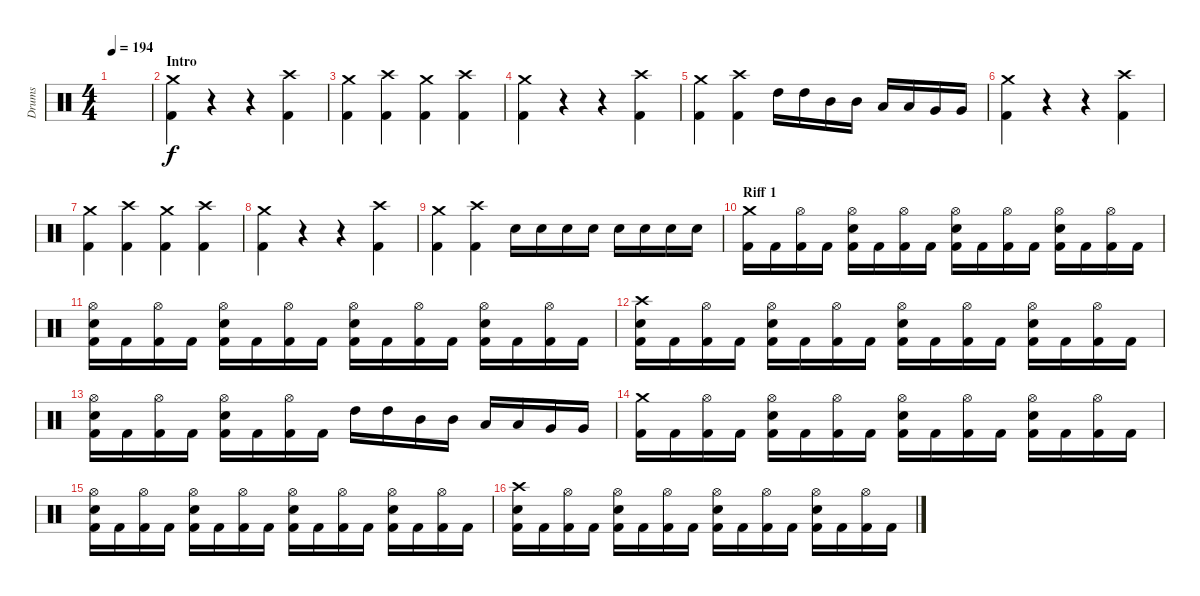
\track ("Drums" "Drums") {instrument percussion}
\staff {score}
\articulation defaults
\ts (4 4)
\tempo 194
\clef neutral
\ks c
|
\section ("" "Intro")
("Crash medium (hit)" "Kick (hit) 2").4 r.4 r.4 ("Crash high (hit)" "Kick (hit) 2").4 |
("Crash medium (hit)" "Kick (hit) 2").4 ("Crash high (hit)" "Kick (hit) 2").4 ("Crash medium (hit)" "Kick (hit) 2").4 ("Crash high (hit)" "Kick (hit) 2").4 |
("Crash medium (hit)" "Kick (hit) 2").4 r.4 r.4 ("Crash high (hit)" "Kick (hit) 2").4 |
("Crash medium (hit)" "Kick (hit) 2").4 ("Crash high (hit)" "Kick (hit) 2").4 "High Tom (hit)".16 "High Tom (hit)".16 "Mid Tom (hit)".16 "Mid Tom (hit)".16 "Low Tom (hit)".16 "Low Tom (hit)".16 "Very Low Tom (hit)".16 "Very Low Tom (hit)".16 |
("Crash medium (hit)" "Kick (hit) 2").4 r.4 r.4 ("Crash high (hit)" "Kick (hit) 2").4 |
("Crash medium (hit)" "Kick (hit) 2").4 ("Crash high (hit)" "Kick (hit) 2").4 ("Crash medium (hit)" "Kick (hit) 2").4 ("Crash high (hit)" "Kick (hit) 2").4 |
("Crash medium (hit)" "Kick (hit) 2").4 r.4 r.4 ("Crash high (hit)" "Kick (hit) 2").4 |
("Crash medium (hit)" "Kick (hit) 2").4 ("Crash high (hit)" "Kick (hit) 2").4 "Electric Snare (hit)".16 "Electric Snare (hit)".16 "Electric Snare (hit)".16 "Electric Snare (hit)".16 "Electric Snare (hit)".16 "Electric Snare (hit)".16 "Electric Snare (hit)".16 "Electric Snare (hit)".16 |
\section ("" "Riff 1")
("Crash medium (hit)" "Kick (hit) 2").16 "Kick (hit) 2".16 ("Hi-Hat (open)" "Kick (hit) 2").16 "Kick (hit) 2".16 ("Hi-Hat (open)" "Electric Snare (hit)" "Kick (hit) 2").16 "Kick (hit) 2".16 ("Hi-Hat (open)" "Kick (hit) 2").16 "Kick (hit) 2".16 ("Hi-Hat (open)" "Electric Snare (hit)" "Kick (hit) 2").16 "Kick (hit) 2".16 ("Hi-Hat (open)" "Kick (hit) 2").16 "Kick (hit) 2".16 ("Hi-Hat (open)" "Electric Snare (hit)" "Kick (hit) 2").16 "Kick (hit) 2".16 ("Hi-Hat (open)" "Kick (hit) 2").16 "Kick (hit) 2".16 |
("Hi-Hat (open)" "Electric Snare (hit)" "Kick (hit) 2").16 "Kick (hit) 2".16 ("Hi-Hat (open)" "Kick (hit) 2").16 "Kick (hit) 2".16 ("Hi-Hat (open)" "Electric Snare (hit)" "Kick (hit) 2").16 "Kick (hit) 2".16 ("Hi-Hat (open)" "Kick (hit) 2").16 "Kick (hit) 2".16 ("Hi-Hat (open)" "Electric Snare (hit)" "Kick (hit) 2").16 "Kick (hit) 2".16 ("Hi-Hat (open)" "Kick (hit) 2").16 "Kick (hit) 2".16 ("Hi-Hat (open)" "Electric Snare (hit)" "Kick (hit) 2").16 "Kick (hit) 2".16 ("Hi-Hat (open)" "Kick (hit) 2").16 "Kick (hit) 2".16 |
("Crash high (hit)" "Electric Snare (hit)" "Kick (hit) 2").16 "Kick (hit) 2".16 ("Hi-Hat (open)" "Kick (hit) 2").16 "Kick (hit) 2".16 ("Hi-Hat (open)" "Electric Snare (hit)" "Kick (hit) 2").16 "Kick (hit) 2".16 ("Hi-Hat (open)" "Kick (hit) 2").16 "Kick (hit) 2".16 ("Hi-Hat (open)" "Electric Snare (hit)" "Kick (hit) 2").16 "Kick (hit) 2".16 ("Hi-Hat (open)" "Kick (hit) 2").16 "Kick (hit) 2".16 ("Hi-Hat (open)" "Electric Snare (hit)" "Kick (hit) 2").16 "Kick (hit) 2".16 ("Hi-Hat (open)" "Kick (hit) 2").16 "Kick (hit) 2".16 |
("Hi-Hat (open)" "Electric Snare (hit)" "Kick (hit) 2").16 "Kick (hit) 2".16 ("Hi-Hat (open)" "Kick (hit) 2").16 "Kick (hit) 2".16 ("Hi-Hat (open)" "Electric Snare (hit)" "Kick (hit) 2").16 "Kick (hit) 2".16 ("Hi-Hat (open)" "Kick (hit) 2").16 "Kick (hit) 2".16 "High Tom (hit)".16 "High Tom (hit)".16 "Mid Tom (hit)".16 "Mid Tom (hit)".16 "Low Tom (hit)".16 "Low Tom (hit)".16 "Very Low Tom (hit)".16 "Very Low Tom (hit)".16 |
("Crash medium (hit)" "Kick (hit) 2").16 "Kick (hit) 2".16 ("Hi-Hat (open)" "Kick (hit) 2").16 "Kick (hit) 2".16 ("Hi-Hat (open)" "Electric Snare (hit)" "Kick (hit) 2").16 "Kick (hit) 2".16 ("Hi-Hat (open)" "Kick (hit) 2").16 "Kick (hit) 2".16 ("Hi-Hat (open)" "Electric Snare (hit)" "Kick (hit) 2").16 "Kick (hit) 2".16 ("Hi-Hat (open)" "Kick (hit) 2").16 "Kick (hit) 2".16 ("Hi-Hat (open)" "Electric Snare (hit)" "Kick (hit) 2").16 "Kick (hit) 2".16 ("Hi-Hat (open)" "Kick (hit) 2").16 "Kick (hit) 2".16 |
("Hi-Hat (open)" "Electric Snare (hit)" "Kick (hit) 2").16 "Kick (hit) 2".16 ("Hi-Hat (open)" "Kick (hit) 2").16 "Kick (hit) 2".16 ("Hi-Hat (open)" "Electric Snare (hit)" "Kick (hit) 2").16 "Kick (hit) 2".16 ("Hi-Hat (open)" "Kick (hit) 2").16 "Kick (hit) 2".16 ("Hi-Hat (open)" "Electric Snare (hit)" "Kick (hit) 2").16 "Kick (hit) 2".16 ("Hi-Hat (open)" "Kick (hit) 2").16 "Kick (hit) 2".16 ("Hi-Hat (open)" "Electric Snare (hit)" "Kick (hit) 2").16 "Kick (hit) 2".16 ("Hi-Hat (open)" "Kick (hit) 2").16 "Kick (hit) 2".16 |
("Crash high (hit)" "Electric Snare (hit)" "Kick (hit) 2").16 "Kick (hit) 2".16 ("Hi-Hat (open)" "Kick (hit) 2").16 "Kick (hit) 2".16 ("Hi-Hat (open)" "Electric Snare (hit)" "Kick (hit) 2").16 "Kick (hit) 2".16 ("Hi-Hat (open)" "Kick (hit) 2").16 "Kick (hit) 2".16 ("Hi-Hat (open)" "Electric Snare (hit)" "Kick (hit) 2").16 "Kick (hit) 2".16 ("Hi-Hat (open)" "Kick (hit) 2").16 "Kick (hit) 2".16 ("Hi-Hat (open)" "Electric Snare (hit)" "Kick (hit) 2").16 "Kick (hit) 2".16 ("Hi-Hat (open)" "Kick (hit) 2").16 "Kick (hit) 2".16
